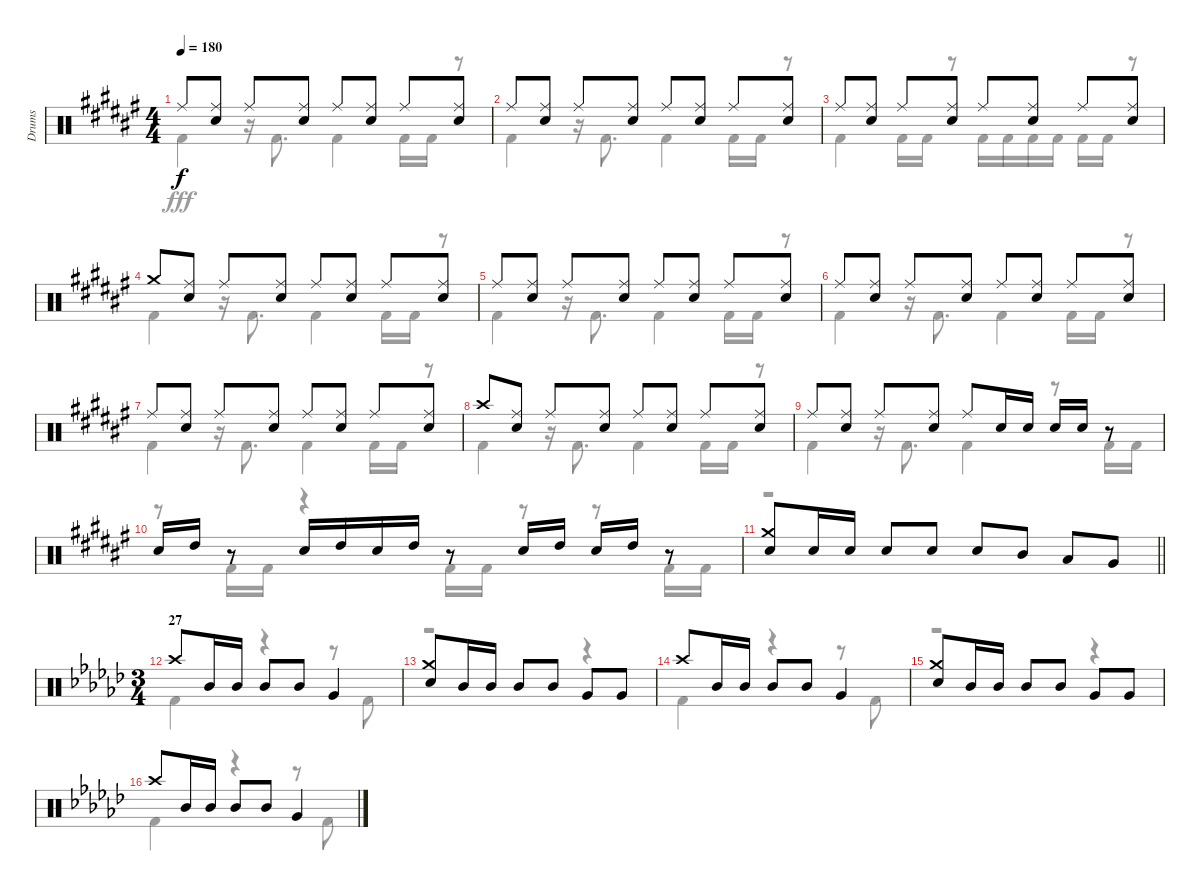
\track ("Drums" "Drums") {instrument percussion}
\staff {score}
\articulation defaults
\voice
\ts (4 4)
\tempo 180
\clef neutral
\ks f# "Ride (middle)".8{dy f}
("Ride (middle)" "Snare (hit) 2").8 "Ride (middle)".8 ("Ride (middle)" "Snare (hit) 2").8 "Ride (middle)".8 ("Ride (middle)" "Snare (hit) 2").8 "Ride (middle)".8 ("Ride (middle)" "Snare (hit) 2").8 |
"Ride (middle)".8 ("Ride (middle)" "Snare (hit) 2").8 "Ride (middle)".8 ("Ride (middle)" "Snare (hit) 2").8 "Ride (middle)".8 ("Ride (middle)" "Snare (hit) 2").8 "Ride (middle)".8 ("Ride (middle)" "Snare (hit) 2").8 |
"Ride (middle)".8 ("Ride (middle)" "Snare (hit) 2").8 "Ride (middle)".8 ("Ride (middle)" "Snare (hit) 2").8 "Ride (middle)".8 ("Ride (middle)" "Snare (hit) 2").8 "Ride (middle)".8 ("Ride (middle)" "Snare (hit) 2").8 |
"Crash medium (hit)".8 ("Ride (middle)" "Snare (hit) 2").8 "Ride (middle)".8 ("Ride (middle)" "Snare (hit) 2").8 "Ride (middle)".8 ("Ride (middle)" "Snare (hit) 2").8 "Ride (middle)".8 ("Ride (middle)" "Snare (hit) 2").8 |
"Ride (middle)".8 ("Ride (middle)" "Snare (hit) 2").8 "Ride (middle)".8 ("Ride (middle)" "Snare (hit) 2").8 "Ride (middle)".8 ("Ride (middle)" "Snare (hit) 2").8 "Ride (middle)".8 ("Ride (middle)" "Snare (hit) 2").8 |
"Ride (middle)".8 ("Ride (middle)" "Snare (hit) 2").8 "Ride (middle)".8 ("Ride (middle)" "Snare (hit) 2").8 "Ride (middle)".8 ("Ride (middle)" "Snare (hit) 2").8 "Ride (middle)".8 ("Ride (middle)" "Snare (hit) 2").8 |
"Ride (middle)".8 ("Ride (middle)" "Snare (hit) 2").8 "Ride (middle)".8 ("Ride (middle)" "Snare (hit) 2").8 "Ride (middle)".8 ("Ride (middle)" "Snare (hit) 2").8 "Ride (middle)".8 ("Ride (middle)" "Snare (hit) 2").8 |
"Crash high (hit)".8 ("Ride (middle)" "Snare (hit) 2").8 "Ride (middle)".8 ("Ride (middle)" "Snare (hit) 2").8 "Ride (middle)".8 ("Ride (middle)" "Snare (hit) 2").8 "Ride (middle)".8 ("Ride (middle)" "Snare (hit) 2").8 |
"Ride (middle)".8 ("Ride (middle)" "Snare (hit) 2").8 "Ride (middle)".8 ("Ride (middle)" "Snare (hit) 2").8 "Ride (middle)".8 "Snare (hit) 2".16 "Snare (hit) 2".16 "Snare (hit) 2".16 "Snare (hit) 2".16 r.8 |
"Snare (hit) 2".16 "High Tom (hit)".16 r.8 "Snare (hit) 2".16 "High Tom (hit)".16 "Snare (hit) 2".16 "High Tom (hit)".16 r.8 "Snare (hit) 2".16 "High Tom (hit)".16 "Snare (hit) 2".16 "High Tom (hit)".16 r.8 |
\barLineRight lightlight
("Crash medium (hit)" "Snare (hit) 2").8 "Snare (hit) 2".16 "Snare (hit) 2".16 "Snare (hit) 2".8 "Snare (hit) 2".8 "Snare (hit) 2".8 "Mid Tom (hit)".8 "Low Tom (hit)".8 "Very Low Tom (hit)".8 |
\ts (3 4)
\section ("" "27")
\ks gb "Crash high (hit)".8 "Mid Tom (hit)".16 "Mid Tom (hit)".16 "Mid Tom (hit)".8 "Mid Tom (hit)".8 "Very Low Tom (hit)".4
|
("Crash medium (hit)" "Snare (hit) 2").8 "Mid Tom (hit)".16 "Mid Tom (hit)".16 "Mid Tom (hit)".8 "Mid Tom (hit)".8 "Very Low Tom (hit)".8 "Very Low Tom (hit)".8 |
"Crash high (hit)".8 "Mid Tom (hit)".16 "Mid Tom (hit)".16 "Mid Tom (hit)".8 "Mid Tom (hit)".8 "Very Low Tom (hit)".4 |
("Crash medium (hit)" "Snare (hit) 2").8 "Mid Tom (hit)".16 "Mid Tom (hit)".16 "Mid Tom (hit)".8 "Mid Tom (hit)".8 "Very Low Tom (hit)".8 "Very Low Tom (hit)".8 |
"Crash high (hit)".8 "Mid Tom (hit)".16 "Mid Tom (hit)".16 "Mid Tom (hit)".8 "Mid Tom (hit)".8 "Very Low Tom (hit)".4
\voice
\clef neutral
\ottava regular
\simile none
\ks f# "Kick (hit) 2".4{dy fff}
r.16 "Kick (hit) 2".8{d} "Kick (hit) 2".4 "Kick (hit) 2".16 "Kick (hit) 2".16 r.8 |
"Kick (hit) 2".4 r.16 "Kick (hit) 2".8{d} "Kick (hit) 2".4 "Kick (hit) 2".16 "Kick (hit) 2".16 r.8 |
"Kick (hit) 2".4 "Kick (hit) 2".16 "Kick (hit) 2".16 r.8 "Kick (hit) 2".16 "Kick (hit) 2".16 "Kick (hit) 2".16 "Kick (hit) 2".16 "Kick (hit) 2".16 "Kick (hit) 2".16 r.8 |
"Kick (hit) 2".4 r.16 "Kick (hit) 2".8{d} "Kick (hit) 2".4 "Kick (hit) 2".16 "Kick (hit) 2".16 r.8 |
"Kick (hit) 2".4 r.16 "Kick (hit) 2".8{d} "Kick (hit) 2".4 "Kick (hit) 2".16 "Kick (hit) 2".16 r.8 |
"Kick (hit) 2".4 r.16 "Kick (hit) 2".8{d} "Kick (hit) 2".4 "Kick (hit) 2".16 "Kick (hit) 2".16 r.8 |
"Kick (hit) 2".4 r.16 "Kick (hit) 2".8{d} "Kick (hit) 2".4 "Kick (hit) 2".16 "Kick (hit) 2".16 r.8 |
"Kick (hit) 2".4 r.16 "Kick (hit) 2".8{d} "Kick (hit) 2".4 "Kick (hit) 2".16 "Kick (hit) 2".16 r.8 |
"Kick (hit) 2".4 r.16 "Kick (hit) 2".8{d} "Kick (hit) 2".4 r.8 "Kick (hit) 2".16 "Kick (hit) 2".16 |
r.8 "Kick (hit) 2".16 "Kick (hit) 2".16 r.4 "Kick (hit) 2".16 "Kick (hit) 2".16 r.8 r.8 "Kick (hit) 2".16 "Kick (hit) 2".16 |
\barLineRight lightlight
r.1 |
\ks gb "Kick (hit) 2".4
r.4 r.8 "Kick (hit) 2".8 |
r.2 r.4 |
"Kick (hit) 2".4 r.4 r.8 "Kick (hit) 2".8 |
r.2 r.4 |
"Kick (hit) 2".4 r.4 r.8 "Kick (hit) 2".8
